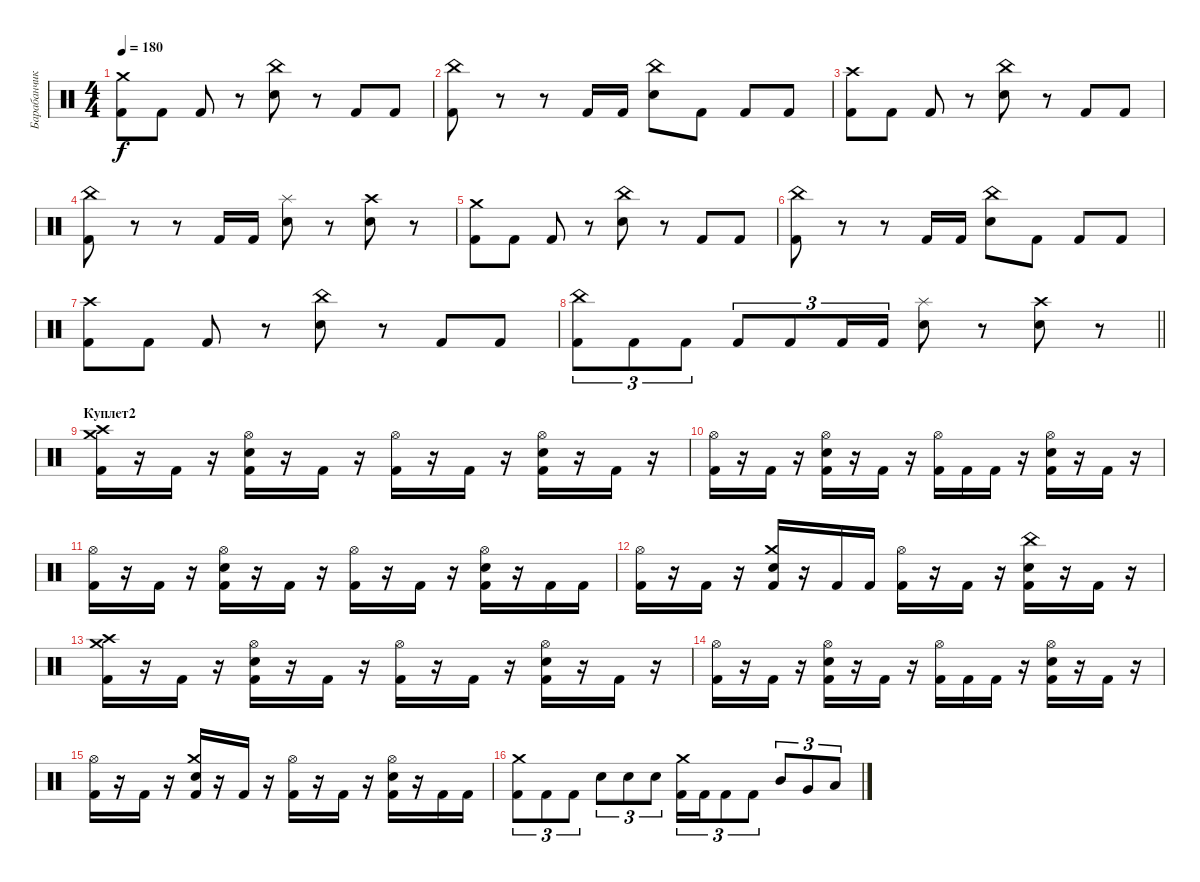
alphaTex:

\track ("Барабанчики" "Барабанчик") {instrument percussion}
\staff {score}
\articulation defaults
\ts (4 4)
\tempo 180
\clef neutral
\ks c
("Kick (hit) 2" "Crash medium (hit)").8{dy f} "Kick (hit) 2".8 "Kick (hit) 2".8 r.8 ("Electric Snare (hit)" "China (hit)").8 r.8 "Kick (hit) 2".8 "Kick (hit) 2".8 |
("Kick (hit) 2" "China (hit)").8 r.8 r.8 "Kick (hit) 2".16 "Kick (hit) 2".16 ("Electric Snare (hit)" "China (hit)").8 "Kick (hit) 2".8 "Kick (hit) 2".8 "Kick (hit) 2".8 |
("Kick (hit) 2" "Crash high (hit)").8 "Kick (hit) 2".8 "Kick (hit) 2".8 r.8 ("Electric Snare (hit)" "China (hit)").8 r.8 "Kick (hit) 2".8 "Kick (hit) 2".8 |
("Kick (hit) 2" "China (hit)").8 r.8 r.8 "Kick (hit) 2".16 "Kick (hit) 2".16 ("Electric Snare (hit)" "Splash (hit)").8 r.8 ("Electric Snare (hit)" "Crash high (hit)").8 r.8 |
("Kick (hit) 2" "Crash medium (hit)").8 "Kick (hit) 2".8 "Kick (hit) 2".8 r.8 ("Electric Snare (hit)" "China (hit)").8 r.8 "Kick (hit) 2".8 "Kick (hit) 2".8 |
("Kick (hit) 2" "China (hit)").8 r.8 r.8 "Kick (hit) 2".16 "Kick (hit) 2".16 ("Electric Snare (hit)" "China (hit)").8 "Kick (hit) 2".8 "Kick (hit) 2".8 "Kick (hit) 2".8 |
("Kick (hit) 2" "Crash high (hit)").8 "Kick (hit) 2".8 "Kick (hit) 2".8 r.8 ("Electric Snare (hit)" "China (hit)").8 r.8 "Kick (hit) 2".8 "Kick (hit) 2".8 |
\barLineRight lightlight
("Kick (hit) 2" "China (hit)").8{tu (3 2)} "Kick (hit) 2".8{tu (3 2)} "Kick (hit) 2".8{tu (3 2)} "Kick (hit) 2".8{tu (3 2)} "Kick (hit) 2".8{tu (3 2)} "Kick (hit) 2".16{tu (3 2)} "Kick (hit) 2".16{tu (3 2)} ("Electric Snare (hit)" "Splash (hit)").8 r.8 ("Electric Snare (hit)" "Crash high (hit)").8 r.8 |
\section ("" "Куплет2")
("Kick (hit) 2" "Crash high (hit)" "Crash medium (hit)").16 r.16 "Kick (hit) 2".16 r.16 ("Kick (hit) 2" "Electric Snare (hit)" "Hi-Hat (open)").16 r.16 "Kick (hit) 2".16 r.16 ("Kick (hit) 2" "Hi-Hat (open)").16 r.16 "Kick (hit) 2".16 r.16 ("Kick (hit) 2" "Electric Snare (hit)" "Hi-Hat (open)").16 r.16 "Kick (hit) 2".16 r.16 |
("Kick (hit) 2" "Hi-Hat (open)").16 r.16 "Kick (hit) 2".16 r.16 ("Kick (hit) 2" "Electric Snare (hit)" "Hi-Hat (open)").16 r.16 "Kick (hit) 2".16 r.16 ("Kick (hit) 2" "Hi-Hat (open)").16 "Kick (hit) 2".16 "Kick (hit) 2".16 r.16 ("Kick (hit) 2" "Electric Snare (hit)" "Hi-Hat (open)").16 r.16 "Kick (hit) 2".16 r.16 |
("Kick (hit) 2" "Hi-Hat (open)").16 r.16 "Kick (hit) 2".16 r.16 ("Kick (hit) 2" "Electric Snare (hit)" "Hi-Hat (open)").16 r.16 "Kick (hit) 2".16 r.16 ("Kick (hit) 2" "Hi-Hat (open)").16 r.16 "Kick (hit) 2".16 r.16 ("Kick (hit) 2" "Electric Snare (hit)" "Hi-Hat (open)").16 r.16 "Kick (hit) 2".16 "Kick (hit) 2".16 |
("Kick (hit) 2" "Hi-Hat (open)").16 r.16 "Kick (hit) 2".16 r.16 ("Kick (hit) 2" "Electric Snare (hit)" "Crash medium (hit)").16 r.16 "Kick (hit) 2".16 "Kick (hit) 2".16 ("Kick (hit) 2" "Hi-Hat (open)").16 r.16 "Kick (hit) 2".16 r.16 ("Kick (hit) 2" "Electric Snare (hit)" "China (hit)").16 r.16 "Kick (hit) 2".16 r.16 |
("Kick (hit) 2" "Crash high (hit)" "Crash medium (hit)").16 r.16 "Kick (hit) 2".16 r.16 ("Kick (hit) 2" "Electric Snare (hit)" "Hi-Hat (open)").16 r.16 "Kick (hit) 2".16 r.16 ("Kick (hit) 2" "Hi-Hat (open)").16 r.16 "Kick (hit) 2".16 r.16 ("Kick (hit) 2" "Electric Snare (hit)" "Hi-Hat (open)").16 r.16 "Kick (hit) 2".16 r.16 |
("Kick (hit) 2" "Hi-Hat (open)").16 r.16 "Kick (hit) 2".16 r.16 ("Kick (hit) 2" "Electric Snare (hit)" "Hi-Hat (open)").16 r.16 "Kick (hit) 2".16 r.16 ("Kick (hit) 2" "Hi-Hat (open)").16 "Kick (hit) 2".16 "Kick (hit) 2".16 r.16 ("Kick (hit) 2" "Electric Snare (hit)" "Hi-Hat (open)").16 r.16 "Kick (hit) 2".16 r.16 |
("Kick (hit) 2" "Hi-Hat (open)").16 r.16 "Kick (hit) 2".16 r.16 ("Kick (hit) 2" "Electric Snare (hit)" "Crash medium (hit)").16 r.16 "Kick (hit) 2".16 r.16 ("Kick (hit) 2" "Hi-Hat (open)").16 r.16 "Kick (hit) 2".16 r.16 ("Kick (hit) 2" "Electric Snare (hit)" "Hi-Hat (open)").16 r.16 "Kick (hit) 2".16 "Kick (hit) 2".16 |
("Kick (hit) 2" "Crash medium (hit)").8{tu (3 2)} "Kick (hit) 2".8{tu (3 2)} "Kick (hit) 2".8{tu (3 2)} "Electric Snare (hit)".8{tu (3 2)} "Electric Snare (hit)".8{tu (3 2)} "Electric Snare (hit)".8{tu (3 2)} ("Kick (hit) 2" "Crash medium (hit)").16{tu (3 2)} "Kick (hit) 2".16{tu (3 2)} "Kick (hit) 2".8{tu (3 2)} "Kick (hit) 2".8{tu (3 2)} "Mid Tom (hit)".8{tu (3 2)} "Very Low Tom (hit)".8{tu (3 2)} "Low Tom (hit)".8{tu (3 2)}
